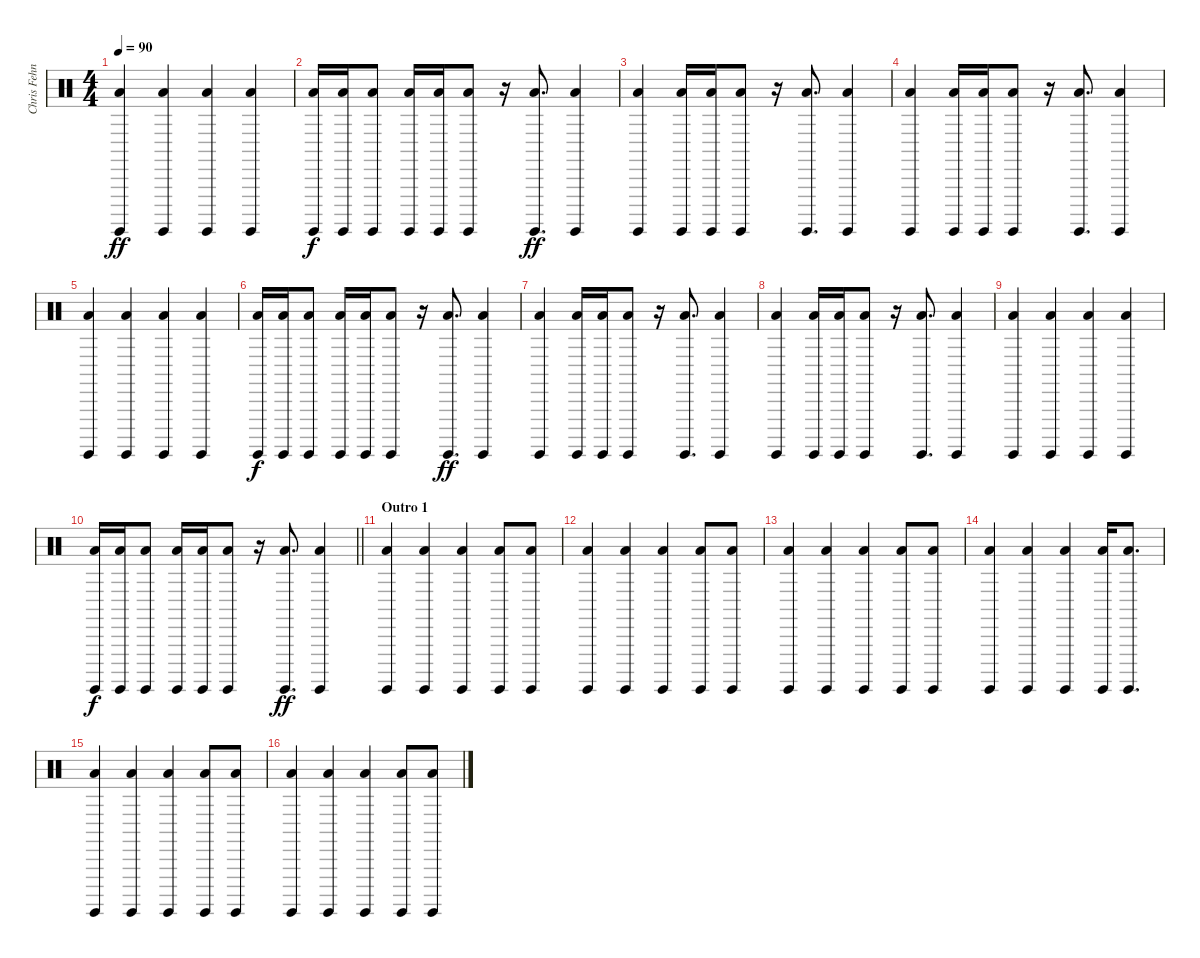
\track ("Chris Fehn" "Chris Fehn") {instrument percussion}
\staff {score}
\articulation defaults
\ts (4 4)
\tempo 90
\clef neutral
\ks c
("Surdo (hit)" "Low Floor Tom (hit)").4{dy ff} ("Surdo (hit)" "Low Floor Tom (hit)").4 ("Surdo (hit)" "Low Floor Tom (hit)").4 ("Surdo (hit)" "Low Floor Tom (hit)").4 |
("Surdo (hit)" "Low Floor Tom (hit)").16{dy f} ("Surdo (hit)" "Low Floor Tom (hit)").16 ("Surdo (hit)" "Low Floor Tom (hit)").8 ("Surdo (hit)" "Low Floor Tom (hit)").16 ("Surdo (hit)" "Low Floor Tom (hit)").16 ("Surdo (hit)" "Low Floor Tom (hit)").8 r.16 ("Surdo (hit)" "Low Floor Tom (hit)").8{d dy ff} ("Surdo (hit)" "Low Floor Tom (hit)").4 |
("Surdo (hit)" "Low Floor Tom (hit)").4 ("Surdo (hit)" "Low Floor Tom (hit)").16 ("Surdo (hit)" "Low Floor Tom (hit)").16 ("Surdo (hit)" "Low Floor Tom (hit)").8 r.16 ("Surdo (hit)" "Low Floor Tom (hit)").8{d} ("Surdo (hit)" "Low Floor Tom (hit)").4 |
("Surdo (hit)" "Low Floor Tom (hit)").4 ("Surdo (hit)" "Low Floor Tom (hit)").16 ("Surdo (hit)" "Low Floor Tom (hit)").16 ("Surdo (hit)" "Low Floor Tom (hit)").8 r.16 ("Surdo (hit)" "Low Floor Tom (hit)").8{d} ("Surdo (hit)" "Low Floor Tom (hit)").4 |
("Surdo (hit)" "Low Floor Tom (hit)").4 ("Surdo (hit)" "Low Floor Tom (hit)").4 ("Surdo (hit)" "Low Floor Tom (hit)").4 ("Surdo (hit)" "Low Floor Tom (hit)").4 |
("Surdo (hit)" "Low Floor Tom (hit)").16{dy f} ("Surdo (hit)" "Low Floor Tom (hit)").16 ("Surdo (hit)" "Low Floor Tom (hit)").8 ("Surdo (hit)" "Low Floor Tom (hit)").16 ("Surdo (hit)" "Low Floor Tom (hit)").16 ("Surdo (hit)" "Low Floor Tom (hit)").8 r.16 ("Surdo (hit)" "Low Floor Tom (hit)").8{d dy ff} ("Surdo (hit)" "Low Floor Tom (hit)").4 |
("Surdo (hit)" "Low Floor Tom (hit)").4 ("Surdo (hit)" "Low Floor Tom (hit)").16 ("Surdo (hit)" "Low Floor Tom (hit)").16 ("Surdo (hit)" "Low Floor Tom (hit)").8 r.16 ("Surdo (hit)" "Low Floor Tom (hit)").8{d} ("Surdo (hit)" "Low Floor Tom (hit)").4 |
("Surdo (hit)" "Low Floor Tom (hit)").4 ("Surdo (hit)" "Low Floor Tom (hit)").16 ("Surdo (hit)" "Low Floor Tom (hit)").16 ("Surdo (hit)" "Low Floor Tom (hit)").8 r.16 ("Surdo (hit)" "Low Floor Tom (hit)").8{d} ("Surdo (hit)" "Low Floor Tom (hit)").4 |
("Surdo (hit)" "Low Floor Tom (hit)").4 ("Surdo (hit)" "Low Floor Tom (hit)").4 ("Surdo (hit)" "Low Floor Tom (hit)").4 ("Surdo (hit)" "Low Floor Tom (hit)").4 |
\barLineRight lightlight
("Surdo (hit)" "Low Floor Tom (hit)").16{dy f} ("Surdo (hit)" "Low Floor Tom (hit)").16 ("Surdo (hit)" "Low Floor Tom (hit)").8 ("Surdo (hit)" "Low Floor Tom (hit)").16 ("Surdo (hit)" "Low Floor Tom (hit)").16 ("Surdo (hit)" "Low Floor Tom (hit)").8 r.16 ("Surdo (hit)" "Low Floor Tom (hit)").8{d dy ff} ("Surdo (hit)" "Low Floor Tom (hit)").4 |
\section ("" "Outro 1")
("Surdo (hit)" "Low Floor Tom (hit)").4 ("Surdo (hit)" "Low Floor Tom (hit)").4 ("Surdo (hit)" "Low Floor Tom (hit)").4 ("Surdo (hit)" "Low Floor Tom (hit)").8 ("Surdo (hit)" "Low Floor Tom (hit)").8 |
("Surdo (hit)" "Low Floor Tom (hit)").4 ("Surdo (hit)" "Low Floor Tom (hit)").4 ("Surdo (hit)" "Low Floor Tom (hit)").4 ("Surdo (hit)" "Low Floor Tom (hit)").8 ("Surdo (hit)" "Low Floor Tom (hit)").8 |
("Surdo (hit)" "Low Floor Tom (hit)").4 ("Surdo (hit)" "Low Floor Tom (hit)").4 ("Surdo (hit)" "Low Floor Tom (hit)").4 ("Surdo (hit)" "Low Floor Tom (hit)").8 ("Surdo (hit)" "Low Floor Tom (hit)").8 |
("Surdo (hit)" "Low Floor Tom (hit)").4 ("Surdo (hit)" "Low Floor Tom (hit)").4 ("Surdo (hit)" "Low Floor Tom (hit)").4 ("Surdo (hit)" "Low Floor Tom (hit)").16 ("Surdo (hit)" "Low Floor Tom (hit)").8{d} |
("Surdo (hit)" "Low Floor Tom (hit)").4 ("Surdo (hit)" "Low Floor Tom (hit)").4 ("Surdo (hit)" "Low Floor Tom (hit)").4 ("Surdo (hit)" "Low Floor Tom (hit)").8 ("Surdo (hit)" "Low Floor Tom (hit)").8 |
("Surdo (hit)" "Low Floor Tom (hit)").4 ("Surdo (hit)" "Low Floor Tom (hit)").4 ("Surdo (hit)" "Low Floor Tom (hit)").4 ("Surdo (hit)" "Low Floor Tom (hit)").8 ("Surdo (hit)" "Low Floor Tom (hit)").8
